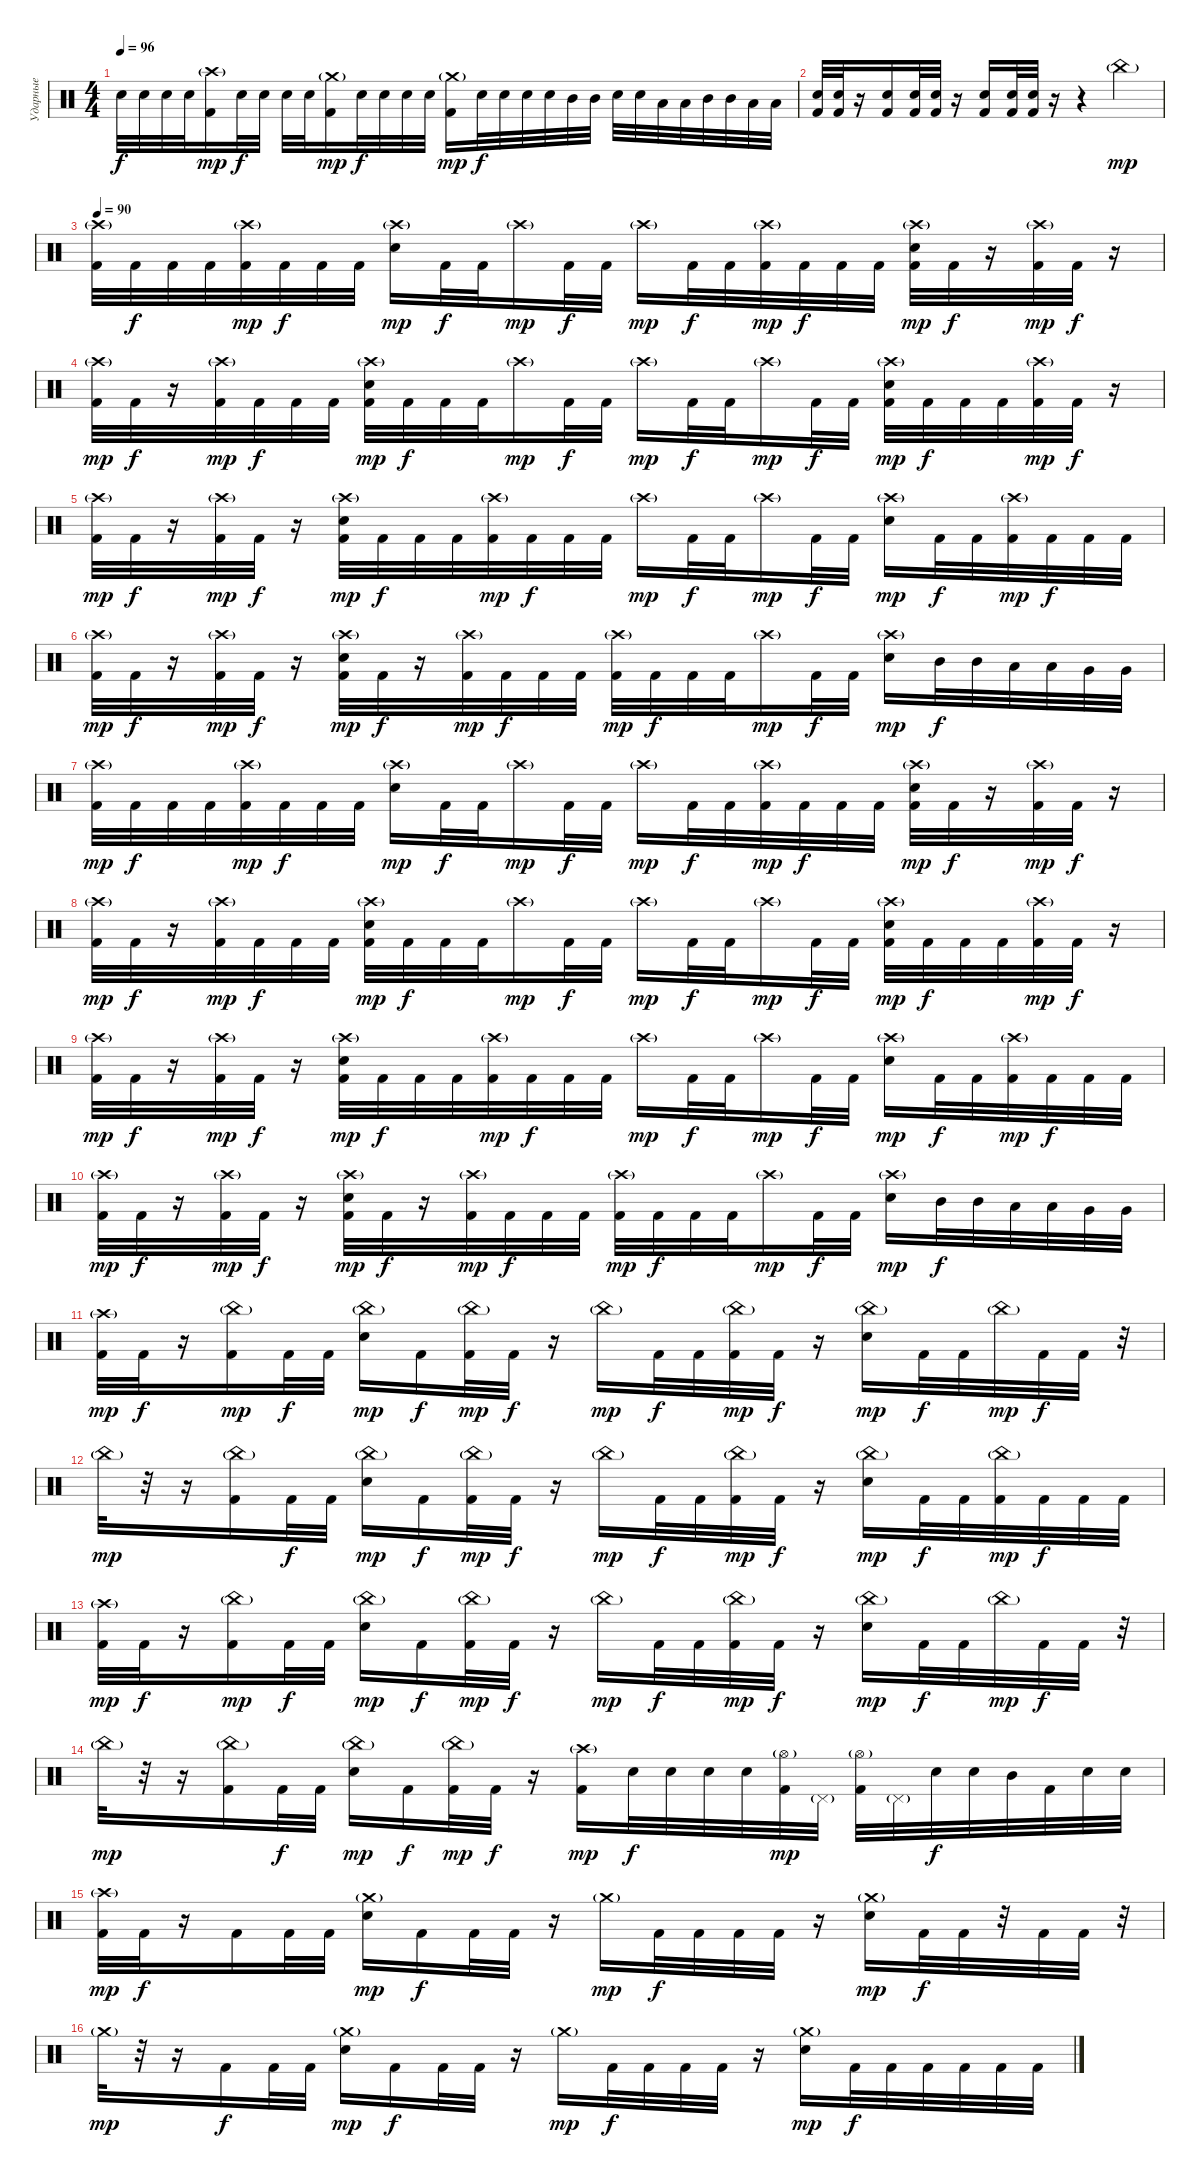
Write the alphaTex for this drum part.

\track ("Ударные" "Ударные") {instrument percussion}
\staff {score}
\articulation defaults
\ts (4 4)
\tempo 96
\clef neutral
\ks c "Electric Snare (hit)".32{dy f} "Electric Snare (hit)".32 "Electric Snare (hit)".32 "Electric Snare (hit)".32
("Crash high (hit)"{g} "Kick (hit) 2").16{dy mp} "Electric Snare (hit)".32{dy f} "Electric Snare (hit)".32 "Electric Snare (hit)".32 "Electric Snare (hit)".32 ("Crash medium (hit)"{g} "Kick (hit) 2").16{dy mp} "Electric Snare (hit)".32{dy f} "Electric Snare (hit)".32 "Electric Snare (hit)".32 "Electric Snare (hit)".32 ("Crash medium (hit)"{g} "Kick (hit) 2").16{dy mp} "Electric Snare (hit)".32{dy f} "Electric Snare (hit)".32 "Electric Snare (hit)".32 "Electric Snare (hit)".32 "Mid Tom (hit)".32 "Mid Tom (hit)".32 "Electric Snare (hit)".32 "Electric Snare (hit)".32 "Low Tom (hit)".32 "Low Tom (hit)".32 "Mid Tom (hit)".32 "Mid Tom (hit)".32 "Low Tom (hit)".32 "Low Tom (hit)".32 |
("Electric Snare (hit)" "Kick (hit) 2").32 ("Electric Snare (hit)" "Kick (hit) 2").32 r.16 ("Electric Snare (hit)" "Kick (hit) 2").16 ("Electric Snare (hit)" "Kick (hit) 2").32 ("Electric Snare (hit)" "Kick (hit) 2").32 r.16 ("Electric Snare (hit)" "Kick (hit) 2").16 ("Electric Snare (hit)" "Kick (hit) 2").32 ("Electric Snare (hit)" "Kick (hit) 2").32 r.16 r.4 "China (hit)"{g}.4{dy mp} |
\tempo 90
("Crash high (hit)"{g} "Kick (hit) 2").32 "Kick (hit) 2".32{dy f} "Kick (hit) 2".32 "Kick (hit) 2".32 ("Crash high (hit)"{g} "Kick (hit) 2").32{dy mp} "Kick (hit) 2".32{dy f} "Kick (hit) 2".32 "Kick (hit) 2".32 ("Crash high (hit)"{g} "Electric Snare (hit)").16{dy mp} "Kick (hit) 2".32{dy f} "Kick (hit) 2".32 "Crash high (hit)"{g}.16{dy mp} "Kick (hit) 2".32{dy f} "Kick (hit) 2".32 "Crash high (hit)"{g}.16{dy mp} "Kick (hit) 2".32{dy f} "Kick (hit) 2".32 ("Crash high (hit)"{g} "Kick (hit) 2").32{dy mp} "Kick (hit) 2".32{dy f} "Kick (hit) 2".32 "Kick (hit) 2".32 ("Crash high (hit)"{g} "Electric Snare (hit)" "Kick (hit) 2").32{dy mp} "Kick (hit) 2".32{dy f} r.16 ("Crash high (hit)"{g} "Kick (hit) 2").32{dy mp} "Kick (hit) 2".32{dy f} r.16 |
("Crash high (hit)"{g} "Kick (hit) 2").32{dy mp} "Kick (hit) 2".32{dy f} r.16 ("Crash high (hit)"{g} "Kick (hit) 2").32{dy mp} "Kick (hit) 2".32{dy f} "Kick (hit) 2".32 "Kick (hit) 2".32 ("Crash high (hit)"{g} "Electric Snare (hit)" "Kick (hit) 2").32{dy mp} "Kick (hit) 2".32{dy f} "Kick (hit) 2".32 "Kick (hit) 2".32 "Crash high (hit)"{g}.16{dy mp} "Kick (hit) 2".32{dy f} "Kick (hit) 2".32 "Crash high (hit)"{g}.16{dy mp} "Kick (hit) 2".32{dy f} "Kick (hit) 2".32 "Crash high (hit)"{g}.16{dy mp} "Kick (hit) 2".32{dy f} "Kick (hit) 2".32 ("Crash high (hit)"{g} "Electric Snare (hit)" "Kick (hit) 2").32{dy mp} "Kick (hit) 2".32{dy f} "Kick (hit) 2".32 "Kick (hit) 2".32 ("Crash high (hit)"{g} "Kick (hit) 2").32{dy mp} "Kick (hit) 2".32{dy f} r.16 |
("Crash high (hit)"{g} "Kick (hit) 2").32{dy mp} "Kick (hit) 2".32{dy f} r.16 ("Crash high (hit)"{g} "Kick (hit) 2").32{dy mp} "Kick (hit) 2".32{dy f} r.16 ("Crash high (hit)"{g} "Electric Snare (hit)" "Kick (hit) 2").32{dy mp} "Kick (hit) 2".32{dy f} "Kick (hit) 2".32 "Kick (hit) 2".32 ("Crash high (hit)"{g} "Kick (hit) 2").32{dy mp} "Kick (hit) 2".32{dy f} "Kick (hit) 2".32 "Kick (hit) 2".32 "Crash high (hit)"{g}.16{dy mp} "Kick (hit) 2".32{dy f} "Kick (hit) 2".32 "Crash high (hit)"{g}.16{dy mp} "Kick (hit) 2".32{dy f} "Kick (hit) 2".32 ("Crash high (hit)"{g} "Electric Snare (hit)").16{dy mp} "Kick (hit) 2".32{dy f} "Kick (hit) 2".32 ("Crash high (hit)"{g} "Kick (hit) 2").32{dy mp} "Kick (hit) 2".32{dy f} "Kick (hit) 2".32 "Kick (hit) 2".32 |
("Crash high (hit)"{g} "Kick (hit) 2").32{dy mp} "Kick (hit) 2".32{dy f} r.16 ("Crash high (hit)"{g} "Kick (hit) 2").32{dy mp} "Kick (hit) 2".32{dy f} r.16 ("Crash high (hit)"{g} "Electric Snare (hit)" "Kick (hit) 2").32{dy mp} "Kick (hit) 2".32{dy f} r.16 ("Crash high (hit)"{g} "Kick (hit) 2").32{dy mp} "Kick (hit) 2".32{dy f} "Kick (hit) 2".32 "Kick (hit) 2".32 ("Crash high (hit)"{g} "Kick (hit) 2").32{dy mp} "Kick (hit) 2".32{dy f} "Kick (hit) 2".32 "Kick (hit) 2".32 "Crash high (hit)"{g}.16{dy mp} "Kick (hit) 2".32{dy f} "Kick (hit) 2".32 ("Crash high (hit)"{g} "Electric Snare (hit)").16{dy mp} "Mid Tom (hit)".32{dy f} "Mid Tom (hit)".32 "Low Tom (hit)".32 "Low Tom (hit)".32 "Very Low Tom (hit)".32 "Very Low Tom (hit)".32 |
("Crash high (hit)"{g} "Kick (hit) 2").32{dy mp} "Kick (hit) 2".32{dy f} "Kick (hit) 2".32 "Kick (hit) 2".32 ("Crash high (hit)"{g} "Kick (hit) 2").32{dy mp} "Kick (hit) 2".32{dy f} "Kick (hit) 2".32 "Kick (hit) 2".32 ("Crash high (hit)"{g} "Electric Snare (hit)").16{dy mp} "Kick (hit) 2".32{dy f} "Kick (hit) 2".32 "Crash high (hit)"{g}.16{dy mp} "Kick (hit) 2".32{dy f} "Kick (hit) 2".32 "Crash high (hit)"{g}.16{dy mp} "Kick (hit) 2".32{dy f} "Kick (hit) 2".32 ("Crash high (hit)"{g} "Kick (hit) 2").32{dy mp} "Kick (hit) 2".32{dy f} "Kick (hit) 2".32 "Kick (hit) 2".32 ("Crash high (hit)"{g} "Electric Snare (hit)" "Kick (hit) 2").32{dy mp} "Kick (hit) 2".32{dy f} r.16 ("Crash high (hit)"{g} "Kick (hit) 2").32{dy mp} "Kick (hit) 2".32{dy f} r.16 |
("Crash high (hit)"{g} "Kick (hit) 2").32{dy mp} "Kick (hit) 2".32{dy f} r.16 ("Crash high (hit)"{g} "Kick (hit) 2").32{dy mp} "Kick (hit) 2".32{dy f} "Kick (hit) 2".32 "Kick (hit) 2".32 ("Crash high (hit)"{g} "Electric Snare (hit)" "Kick (hit) 2").32{dy mp} "Kick (hit) 2".32{dy f} "Kick (hit) 2".32 "Kick (hit) 2".32 "Crash high (hit)"{g}.16{dy mp} "Kick (hit) 2".32{dy f} "Kick (hit) 2".32 "Crash high (hit)"{g}.16{dy mp} "Kick (hit) 2".32{dy f} "Kick (hit) 2".32 "Crash high (hit)"{g}.16{dy mp} "Kick (hit) 2".32{dy f} "Kick (hit) 2".32 ("Crash high (hit)"{g} "Electric Snare (hit)" "Kick (hit) 2").32{dy mp} "Kick (hit) 2".32{dy f} "Kick (hit) 2".32 "Kick (hit) 2".32 ("Crash high (hit)"{g} "Kick (hit) 2").32{dy mp} "Kick (hit) 2".32{dy f} r.16 |
("Crash high (hit)"{g} "Kick (hit) 2").32{dy mp} "Kick (hit) 2".32{dy f} r.16 ("Crash high (hit)"{g} "Kick (hit) 2").32{dy mp} "Kick (hit) 2".32{dy f} r.16 ("Crash high (hit)"{g} "Electric Snare (hit)" "Kick (hit) 2").32{dy mp} "Kick (hit) 2".32{dy f} "Kick (hit) 2".32 "Kick (hit) 2".32 ("Crash high (hit)"{g} "Kick (hit) 2").32{dy mp} "Kick (hit) 2".32{dy f} "Kick (hit) 2".32 "Kick (hit) 2".32 "Crash high (hit)"{g}.16{dy mp} "Kick (hit) 2".32{dy f} "Kick (hit) 2".32 "Crash high (hit)"{g}.16{dy mp} "Kick (hit) 2".32{dy f} "Kick (hit) 2".32 ("Crash high (hit)"{g} "Electric Snare (hit)").16{dy mp} "Kick (hit) 2".32{dy f} "Kick (hit) 2".32 ("Crash high (hit)"{g} "Kick (hit) 2").32{dy mp} "Kick (hit) 2".32{dy f} "Kick (hit) 2".32 "Kick (hit) 2".32 |
("Crash high (hit)"{g} "Kick (hit) 2").32{dy mp} "Kick (hit) 2".32{dy f} r.16 ("Crash high (hit)"{g} "Kick (hit) 2").32{dy mp} "Kick (hit) 2".32{dy f} r.16 ("Crash high (hit)"{g} "Electric Snare (hit)" "Kick (hit) 2").32{dy mp} "Kick (hit) 2".32{dy f} r.16 ("Crash high (hit)"{g} "Kick (hit) 2").32{dy mp} "Kick (hit) 2".32{dy f} "Kick (hit) 2".32 "Kick (hit) 2".32 ("Crash high (hit)"{g} "Kick (hit) 2").32{dy mp} "Kick (hit) 2".32{dy f} "Kick (hit) 2".32 "Kick (hit) 2".32 "Crash high (hit)"{g}.16{dy mp} "Kick (hit) 2".32{dy f} "Kick (hit) 2".32 ("Crash high (hit)"{g} "Electric Snare (hit)").16{dy mp} "Mid Tom (hit)".32{dy f} "Mid Tom (hit)".32 "Low Tom (hit)".32 "Low Tom (hit)".32 "Very Low Tom (hit)".32 "Very Low Tom (hit)".32 |
("Crash high (hit)"{g} "Kick (hit) 2").32{dy mp} "Kick (hit) 2".32{dy f} r.16 ("China (hit)"{g} "Kick (hit) 2").16{dy mp} "Kick (hit) 2".32{dy f} "Kick (hit) 2".32 ("China (hit)"{g} "Electric Snare (hit)").16{dy mp} "Kick (hit) 2".16{dy f} ("China (hit)"{g} "Kick (hit) 2").32{dy mp} "Kick (hit) 2".32{dy f} r.16 "China (hit)"{g}.16{dy mp} "Kick (hit) 2".32{dy f} "Kick (hit) 2".32 ("China (hit)"{g} "Kick (hit) 2").32{dy mp} "Kick (hit) 2".32{dy f} r.16 ("China (hit)"{g} "Electric Snare (hit)").16{dy mp} "Kick (hit) 2".32{dy f} "Kick (hit) 2".32 "China (hit)"{g}.32{dy mp} "Kick (hit) 2".32{dy f} "Kick (hit) 2".32 r.32 |
"China (hit)"{g}.32{dy mp} r.32 r.16 ("China (hit)"{g} "Kick (hit) 2").16 "Kick (hit) 2".32{dy f} "Kick (hit) 2".32 ("China (hit)"{g} "Electric Snare (hit)").16{dy mp} "Kick (hit) 2".16{dy f} ("China (hit)"{g} "Kick (hit) 2").32{dy mp} "Kick (hit) 2".32{dy f} r.16 "China (hit)"{g}.16{dy mp} "Kick (hit) 2".32{dy f} "Kick (hit) 2".32 ("China (hit)"{g} "Kick (hit) 2").32{dy mp} "Kick (hit) 2".32{dy f} r.16 ("China (hit)"{g} "Electric Snare (hit)").16{dy mp} "Kick (hit) 2".32{dy f} "Kick (hit) 2".32 ("China (hit)"{g} "Kick (hit) 2").32{dy mp} "Kick (hit) 2".32{dy f} "Kick (hit) 2".32 "Kick (hit) 2".32 |
("Crash high (hit)"{g} "Kick (hit) 2").32{dy mp} "Kick (hit) 2".32{dy f} r.16 ("China (hit)"{g} "Kick (hit) 2").16{dy mp} "Kick (hit) 2".32{dy f} "Kick (hit) 2".32 ("China (hit)"{g} "Electric Snare (hit)").16{dy mp} "Kick (hit) 2".16{dy f} ("China (hit)"{g} "Kick (hit) 2").32{dy mp} "Kick (hit) 2".32{dy f} r.16 "China (hit)"{g}.16{dy mp} "Kick (hit) 2".32{dy f} "Kick (hit) 2".32 ("China (hit)"{g} "Kick (hit) 2").32{dy mp} "Kick (hit) 2".32{dy f} r.16 ("China (hit)"{g} "Electric Snare (hit)").16{dy mp} "Kick (hit) 2".32{dy f} "Kick (hit) 2".32 "China (hit)"{g}.32{dy mp} "Kick (hit) 2".32{dy f} "Kick (hit) 2".32 r.32 |
"China (hit)"{g}.32{dy mp} r.32 r.16 ("China (hit)"{g} "Kick (hit) 2").16 "Kick (hit) 2".32{dy f} "Kick (hit) 2".32 ("China (hit)"{g} "Electric Snare (hit)").16{dy mp} "Kick (hit) 2".16{dy f} ("China (hit)"{g} "Kick (hit) 2").32{dy mp} "Kick (hit) 2".32{dy f} r.16 ("Crash high (hit)"{g} "Kick (hit) 2").16{dy mp} "Electric Snare (hit)".32{dy f} "Electric Snare (hit)".32 "Electric Snare (hit)".32 "Electric Snare (hit)".32 ("Hi-Hat (open)"{g} "Kick (hit) 2").32{dy mp} "Pedal Hi-Hat (hit)"{g}.32 ("Hi-Hat (open)"{g} "Kick (hit) 2").32 "Pedal Hi-Hat (hit)"{g}.32 "Electric Snare (hit)".32{dy f} "Electric Snare (hit)".32 "Mid Tom (hit)".32 "Kick (hit) 2".32 "Electric Snare (hit)".32 "Electric Snare (hit)".32 |
("Crash high (hit)"{g} "Kick (hit) 2").32{dy mp} "Kick (hit) 2".32{dy f} r.16 "Kick (hit) 2".16 "Kick (hit) 2".32 "Kick (hit) 2".32 ("Crash medium (hit)"{g} "Electric Snare (hit)").16{dy mp} "Kick (hit) 2".16{dy f} "Kick (hit) 2".32 "Kick (hit) 2".32 r.16 "Crash medium (hit)"{g}.16{dy mp} "Kick (hit) 2".32{dy f} "Kick (hit) 2".32 "Kick (hit) 2".32 "Kick (hit) 2".32 r.16 ("Crash medium (hit)"{g} "Electric Snare (hit)").16{dy mp} "Kick (hit) 2".32{dy f} "Kick (hit) 2".32 r.32 "Kick (hit) 2".32 "Kick (hit) 2".32 r.32 |
"Crash medium (hit)"{g}.32{dy mp} r.32 r.16 "Kick (hit) 2".16{dy f} "Kick (hit) 2".32 "Kick (hit) 2".32 ("Crash medium (hit)"{g} "Electric Snare (hit)").16{dy mp} "Kick (hit) 2".16{dy f} "Kick (hit) 2".32 "Kick (hit) 2".32 r.16 "Crash medium (hit)"{g}.16{dy mp} "Kick (hit) 2".32{dy f} "Kick (hit) 2".32 "Kick (hit) 2".32 "Kick (hit) 2".32 r.16 ("Crash medium (hit)"{g} "Electric Snare (hit)").16{dy mp} "Kick (hit) 2".32{dy f} "Kick (hit) 2".32 "Kick (hit) 2".32 "Kick (hit) 2".32 "Kick (hit) 2".32 "Kick (hit) 2".32
